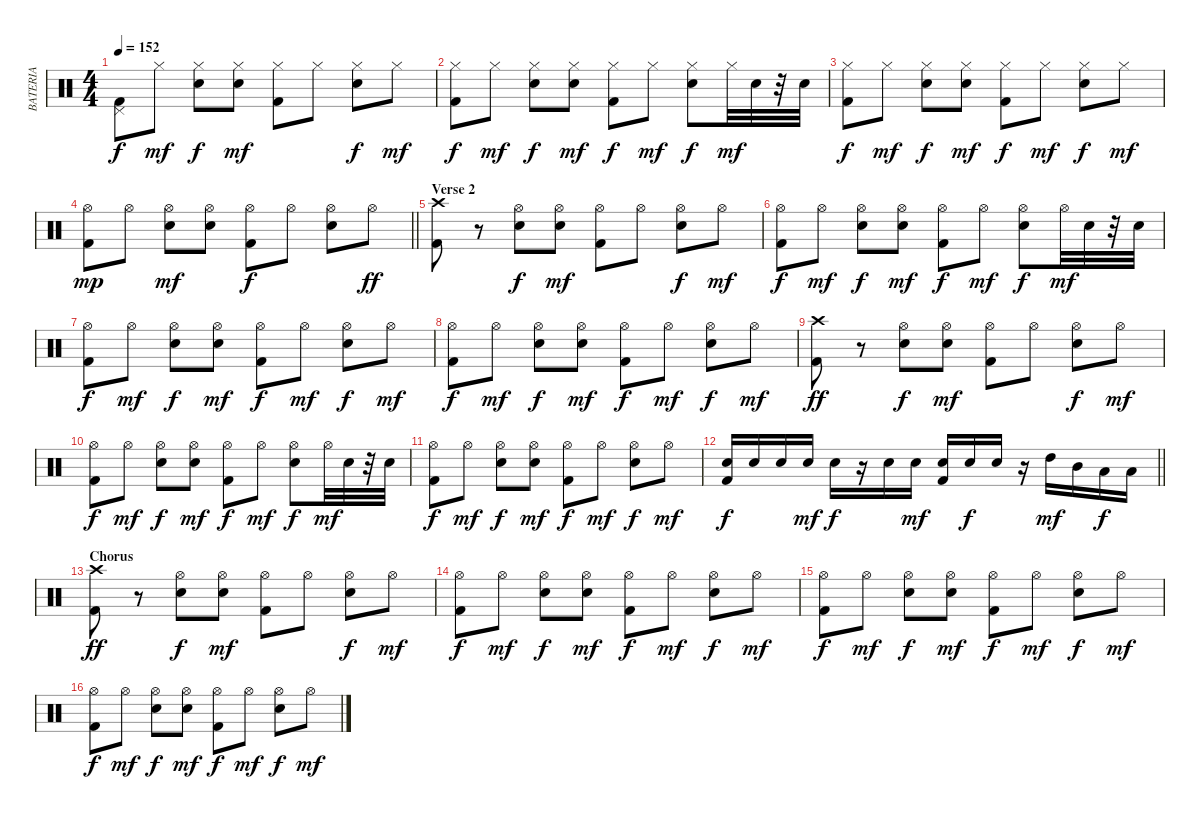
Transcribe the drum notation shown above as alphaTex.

\track ("BATERIA" "BATERIA") {instrument percussion}
\staff {score}
\articulation defaults
\ts (4 4)
\tempo 152
\clef neutral
\ks c
("Kick (hit) 2" "Pedal Hi-Hat (hit)").8{dy f} "Hi-Hat (closed)".8{dy mf} ("Snare (hit) 2" "Hi-Hat (closed)").8{dy f} ("Snare (hit) 2" "Hi-Hat (closed)").8{dy mf} ("Kick (hit) 2" "Hi-Hat (closed)").8 "Hi-Hat (closed)".8 ("Snare (hit) 2" "Hi-Hat (closed)").8{dy f} "Hi-Hat (closed)".8{dy mf} |
("Hi-Hat (closed)" "Kick (hit) 2").8{dy f} "Hi-Hat (closed)".8{dy mf} ("Hi-Hat (closed)" "Snare (hit) 2").8{dy f} ("Hi-Hat (closed)" "Snare (hit) 2").8{dy mf} ("Hi-Hat (closed)" "Kick (hit) 2").8{dy f} "Hi-Hat (closed)".8{dy mf} ("Hi-Hat (closed)" "Snare (hit) 2").8{dy f} "Hi-Hat (closed)".32{dy mf} "Snare (hit) 2".32 r.32 "Snare (hit) 2".32 |
("Hi-Hat (closed)" "Kick (hit) 2").8{dy f} "Hi-Hat (closed)".8{dy mf} ("Hi-Hat (closed)" "Snare (hit) 2").8{dy f} ("Hi-Hat (closed)" "Snare (hit) 2").8{dy mf} ("Hi-Hat (closed)" "Kick (hit) 2").8{dy f} "Hi-Hat (closed)".8{dy mf} ("Hi-Hat (closed)" "Snare (hit) 2").8{dy f} "Hi-Hat (closed)".8{dy mf} |
\barLineRight lightlight
("Hi-Hat (open)" "Kick (hit) 2").8{dy mp} "Hi-Hat (open)".8 ("Snare (hit) 2" "Hi-Hat (open)").8{dy mf} ("Snare (hit) 2" "Hi-Hat (open)").8 ("Hi-Hat (open)" "Kick (hit) 2").8{dy f} "Hi-Hat (open)".8 ("Hi-Hat (open)" "Snare (hit) 2").8 "Hi-Hat (open)".8{dy ff} |
\section ("" "Verse 2")
("Kick (hit) 2" "Crash high (hit)").8 r.8 ("Snare (hit) 2" "Hi-Hat (open)").8{dy f} ("Snare (hit) 2" "Hi-Hat (open)").8{dy mf} ("Kick (hit) 2" "Hi-Hat (open)").8 "Hi-Hat (open)".8 ("Snare (hit) 2" "Hi-Hat (open)").8{dy f} "Hi-Hat (open)".8{dy mf} |
("Hi-Hat (open)" "Kick (hit) 2").8{dy f} "Hi-Hat (open)".8{dy mf} ("Hi-Hat (open)" "Snare (hit) 2").8{dy f} ("Hi-Hat (open)" "Snare (hit) 2").8{dy mf} ("Hi-Hat (open)" "Kick (hit) 2").8{dy f} "Hi-Hat (open)".8{dy mf} ("Hi-Hat (open)" "Snare (hit) 2").8{dy f} "Hi-Hat (open)".32{dy mf} "Snare (hit) 2".32 r.32 "Snare (hit) 2".32 |
("Hi-Hat (open)" "Kick (hit) 2").8{dy f} "Hi-Hat (open)".8{dy mf} ("Hi-Hat (open)" "Snare (hit) 2").8{dy f} ("Hi-Hat (open)" "Snare (hit) 2").8{dy mf} ("Hi-Hat (open)" "Kick (hit) 2").8{dy f} "Hi-Hat (open)".8{dy mf} ("Hi-Hat (open)" "Snare (hit) 2").8{dy f} "Hi-Hat (open)".8{dy mf} |
("Hi-Hat (open)" "Kick (hit) 2").8{dy f} "Hi-Hat (open)".8{dy mf} ("Snare (hit) 2" "Hi-Hat (open)").8{dy f} ("Snare (hit) 2" "Hi-Hat (open)").8{dy mf} ("Hi-Hat (open)" "Kick (hit) 2").8{dy f} "Hi-Hat (open)".8{dy mf} ("Hi-Hat (open)" "Snare (hit) 2").8{dy f} "Hi-Hat (open)".8{dy mf} |
("Kick (hit) 2" "Crash high (hit)").8{dy ff} r.8 ("Snare (hit) 2" "Hi-Hat (open)").8{dy f} ("Snare (hit) 2" "Hi-Hat (open)").8{dy mf} ("Kick (hit) 2" "Hi-Hat (open)").8 "Hi-Hat (open)".8 ("Snare (hit) 2" "Hi-Hat (open)").8{dy f} "Hi-Hat (open)".8{dy mf} |
("Hi-Hat (open)" "Kick (hit) 2").8{dy f} "Hi-Hat (open)".8{dy mf} ("Hi-Hat (open)" "Snare (hit) 2").8{dy f} ("Hi-Hat (open)" "Snare (hit) 2").8{dy mf} ("Hi-Hat (open)" "Kick (hit) 2").8{dy f} "Hi-Hat (open)".8{dy mf} ("Hi-Hat (open)" "Snare (hit) 2").8{dy f} "Hi-Hat (open)".32{dy mf} "Snare (hit) 2".32 r.32 "Snare (hit) 2".32 |
("Hi-Hat (open)" "Kick (hit) 2").8{dy f} "Hi-Hat (open)".8{dy mf} ("Hi-Hat (open)" "Snare (hit) 2").8{dy f} ("Hi-Hat (open)" "Snare (hit) 2").8{dy mf} ("Hi-Hat (open)" "Kick (hit) 2").8{dy f} "Hi-Hat (open)".8{dy mf} ("Hi-Hat (open)" "Snare (hit) 2").8{dy f} "Hi-Hat (open)".8{dy mf} |
\barLineRight lightlight
("Kick (hit) 2" "Snare (hit) 2").16{dy f} "Snare (hit) 2".16 "Snare (hit) 2".16 "Snare (hit) 2".16{dy mf} "Snare (hit) 2".16{dy f} r.16 "Snare (hit) 2".16 "Snare (hit) 2".16{dy mf} ("Kick (hit) 2" "Snare (hit) 2").16 "Snare (hit) 2".16{dy f} "Snare (hit) 2".16 r.16 "High Tom (hit)".16{dy mf} "Mid Tom (hit)".16 "Low Tom (hit)".16{dy f} "Low Tom (hit)".16 |
\section ("" "Chorus")
("Kick (hit) 2" "Crash high (hit)").8{dy ff} r.8 ("Snare (hit) 2" "Hi-Hat (open)").8{dy f} ("Snare (hit) 2" "Hi-Hat (open)").8{dy mf} ("Kick (hit) 2" "Hi-Hat (open)").8 "Hi-Hat (open)".8 ("Snare (hit) 2" "Hi-Hat (open)").8{dy f} "Hi-Hat (open)".8{dy mf} |
("Hi-Hat (open)" "Kick (hit) 2").8{dy f} "Hi-Hat (open)".8{dy mf} ("Hi-Hat (open)" "Snare (hit) 2").8{dy f} ("Hi-Hat (open)" "Snare (hit) 2").8{dy mf} ("Hi-Hat (open)" "Kick (hit) 2").8{dy f} "Hi-Hat (open)".8{dy mf} ("Hi-Hat (open)" "Snare (hit) 2").8{dy f} "Hi-Hat (open)".8{dy mf} |
("Hi-Hat (open)" "Kick (hit) 2").8{dy f} "Hi-Hat (open)".8{dy mf} ("Hi-Hat (open)" "Snare (hit) 2").8{dy f} ("Hi-Hat (open)" "Snare (hit) 2").8{dy mf} ("Hi-Hat (open)" "Kick (hit) 2").8{dy f} "Hi-Hat (open)".8{dy mf} ("Hi-Hat (open)" "Snare (hit) 2").8{dy f} "Hi-Hat (open)".8{dy mf} |
("Hi-Hat (open)" "Kick (hit) 2").8{dy f} "Hi-Hat (open)".8{dy mf} ("Snare (hit) 2" "Hi-Hat (open)").8{dy f} ("Snare (hit) 2" "Hi-Hat (open)").8{dy mf} ("Hi-Hat (open)" "Kick (hit) 2").8{dy f} "Hi-Hat (open)".8{dy mf} ("Hi-Hat (open)" "Snare (hit) 2").8{dy f} "Hi-Hat (open)".8{dy mf}
